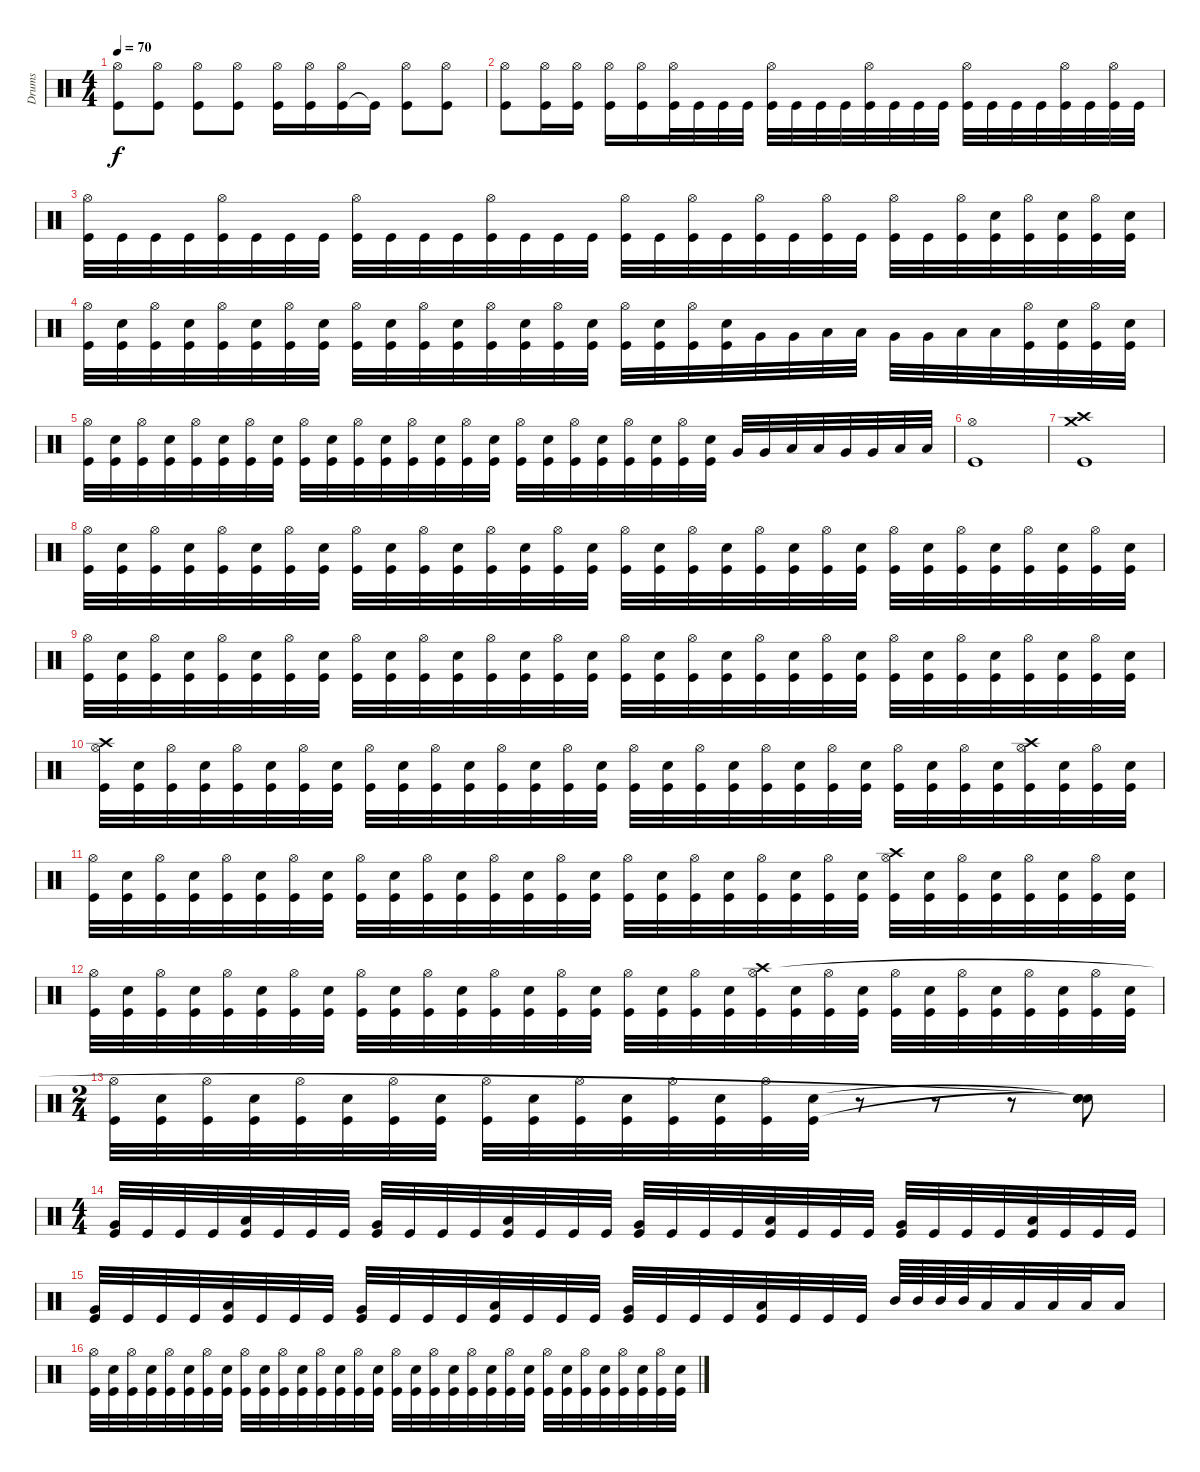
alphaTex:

\track ("Drums" "Drums") {instrument percussion}
\staff {score}
\articulation defaults
\ts (4 4)
\tempo 70
\clef neutral
\ks c
("Kick (hit)" "Hi-Hat (open)").8{dy f} ("Kick (hit)" "Hi-Hat (open)").8 ("Kick (hit)" "Hi-Hat (open)").8 ("Kick (hit)" "Hi-Hat (open)").8 ("Kick (hit)" "Hi-Hat (open)").16 ("Kick (hit)" "Hi-Hat (open)").16 ("Kick (hit)" "Hi-Hat (open)").16 "Kick (hit)"{t}.16 ("Kick (hit)" "Hi-Hat (open)").8 ("Kick (hit)" "Hi-Hat (open)").8 |
("Kick (hit)" "Hi-Hat (open)").8 ("Kick (hit)" "Hi-Hat (open)").16 ("Kick (hit)" "Hi-Hat (open)").16 ("Kick (hit)" "Hi-Hat (open)").16 ("Kick (hit)" "Hi-Hat (open)").16 ("Kick (hit)" "Hi-Hat (open)").32 "Kick (hit)".32 "Kick (hit)".32 "Kick (hit)".32 ("Kick (hit)" "Hi-Hat (open)").32 "Kick (hit)".32 "Kick (hit)".32 "Kick (hit)".32 ("Kick (hit)" "Hi-Hat (open)").32 "Kick (hit)".32 "Kick (hit)".32 "Kick (hit)".32 ("Kick (hit)" "Hi-Hat (open)").32 "Kick (hit)".32 "Kick (hit)".32 "Kick (hit)".32 ("Kick (hit)" "Hi-Hat (open)").32 "Kick (hit)".32 ("Kick (hit)" "Hi-Hat (open)").32 "Kick (hit)".32 |
("Kick (hit)" "Hi-Hat (open)").32 "Kick (hit)".32 "Kick (hit)".32 "Kick (hit)".32 ("Kick (hit)" "Hi-Hat (open)").32 "Kick (hit)".32 "Kick (hit)".32 "Kick (hit)".32 ("Kick (hit)" "Hi-Hat (open)").32 "Kick (hit)".32 "Kick (hit)".32 "Kick (hit)".32 ("Kick (hit)" "Hi-Hat (open)").32 "Kick (hit)".32 "Kick (hit)".32 "Kick (hit)".32 ("Kick (hit)" "Hi-Hat (open)").32 "Kick (hit)".32 ("Kick (hit)" "Hi-Hat (open)").32 "Kick (hit)".32 ("Kick (hit)" "Hi-Hat (open)").32 "Kick (hit)".32 ("Kick (hit)" "Hi-Hat (open)").32 "Kick (hit)".32 ("Kick (hit)" "Hi-Hat (open)").32 "Kick (hit)".32 ("Kick (hit)" "Hi-Hat (open)").32 ("Kick (hit)" "Electric Snare (hit)").32 ("Kick (hit)" "Hi-Hat (open)").32 ("Kick (hit)" "Electric Snare (hit)").32 ("Kick (hit)" "Hi-Hat (open)").32 ("Kick (hit)" "Electric Snare (hit)").32 |
("Kick (hit)" "Hi-Hat (open)").32 ("Kick (hit)" "Electric Snare (hit)").32 ("Kick (hit)" "Hi-Hat (open)").32 ("Kick (hit)" "Electric Snare (hit)").32 ("Kick (hit)" "Hi-Hat (open)").32 ("Kick (hit)" "Electric Snare (hit)").32 ("Kick (hit)" "Hi-Hat (open)").32 ("Kick (hit)" "Electric Snare (hit)").32 ("Kick (hit)" "Hi-Hat (open)").32 ("Kick (hit)" "Electric Snare (hit)").32 ("Kick (hit)" "Hi-Hat (open)").32 ("Kick (hit)" "Electric Snare (hit)").32 ("Kick (hit)" "Hi-Hat (open)").32 ("Kick (hit)" "Electric Snare (hit)").32 ("Kick (hit)" "Hi-Hat (open)").32 ("Kick (hit)" "Electric Snare (hit)").32 ("Kick (hit)" "Hi-Hat (open)").32 ("Kick (hit)" "Electric Snare (hit)").32 ("Kick (hit)" "Hi-Hat (open)").32 ("Kick (hit)" "Electric Snare (hit)").32 "Very Low Tom (hit)".32 "Very Low Tom (hit)".32 "Low Floor Tom (hit)".32 "Low Floor Tom (hit)".32 "Very Low Tom (hit)".32 "Very Low Tom (hit)".32 "Low Floor Tom (hit)".32 "Low Floor Tom (hit)".32 ("Kick (hit)" "Hi-Hat (open)").32 ("Kick (hit)" "Electric Snare (hit)").32 ("Kick (hit)" "Hi-Hat (open)").32 ("Kick (hit)" "Electric Snare (hit)").32 |
("Kick (hit)" "Hi-Hat (open)").32 ("Kick (hit)" "Electric Snare (hit)").32 ("Kick (hit)" "Hi-Hat (open)").32 ("Kick (hit)" "Electric Snare (hit)").32 ("Kick (hit)" "Hi-Hat (open)").32 ("Kick (hit)" "Electric Snare (hit)").32 ("Kick (hit)" "Hi-Hat (open)").32 ("Kick (hit)" "Electric Snare (hit)").32 ("Kick (hit)" "Hi-Hat (open)").32 ("Kick (hit)" "Electric Snare (hit)").32 ("Kick (hit)" "Hi-Hat (open)").32 ("Kick (hit)" "Electric Snare (hit)").32 ("Kick (hit)" "Hi-Hat (open)").32 ("Kick (hit)" "Electric Snare (hit)").32 ("Kick (hit)" "Hi-Hat (open)").32 ("Kick (hit)" "Electric Snare (hit)").32 ("Kick (hit)" "Hi-Hat (open)").32 ("Kick (hit)" "Electric Snare (hit)").32 ("Kick (hit)" "Hi-Hat (open)").32 ("Kick (hit)" "Electric Snare (hit)").32 ("Kick (hit)" "Hi-Hat (open)").32 ("Kick (hit)" "Electric Snare (hit)").32 ("Kick (hit)" "Hi-Hat (open)").32 ("Kick (hit)" "Electric Snare (hit)").32 "Very Low Tom (hit)".32 "Very Low Tom (hit)".32 "Low Floor Tom (hit)".32 "Low Floor Tom (hit)".32 "Very Low Tom (hit)".32 "Very Low Tom (hit)".32 "Low Floor Tom (hit)".32 "Low Floor Tom (hit)".32 |
("Kick (hit)" "Hi-Hat (open)").1 |
("Crash medium (hit)" "Crash high (hit)" "Kick (hit)").1 |
("Kick (hit)" "Hi-Hat (open)").32 ("Kick (hit)" "Electric Snare (hit)").32 ("Kick (hit)" "Hi-Hat (open)").32 ("Kick (hit)" "Electric Snare (hit)").32 ("Kick (hit)" "Hi-Hat (open)").32 ("Kick (hit)" "Electric Snare (hit)").32 ("Kick (hit)" "Hi-Hat (open)").32 ("Kick (hit)" "Electric Snare (hit)").32 ("Kick (hit)" "Hi-Hat (open)").32 ("Kick (hit)" "Electric Snare (hit)").32 ("Kick (hit)" "Hi-Hat (open)").32 ("Kick (hit)" "Electric Snare (hit)").32 ("Kick (hit)" "Hi-Hat (open)").32 ("Kick (hit)" "Electric Snare (hit)").32 ("Kick (hit)" "Hi-Hat (open)").32 ("Kick (hit)" "Electric Snare (hit)").32 ("Kick (hit)" "Hi-Hat (open)").32 ("Kick (hit)" "Electric Snare (hit)").32 ("Kick (hit)" "Hi-Hat (open)").32 ("Kick (hit)" "Electric Snare (hit)").32 ("Kick (hit)" "Hi-Hat (open)").32 ("Kick (hit)" "Electric Snare (hit)").32 ("Kick (hit)" "Hi-Hat (open)").32 ("Kick (hit)" "Electric Snare (hit)").32 ("Kick (hit)" "Hi-Hat (open)").32 ("Kick (hit)" "Electric Snare (hit)").32 ("Kick (hit)" "Hi-Hat (open)").32 ("Kick (hit)" "Electric Snare (hit)").32 ("Kick (hit)" "Hi-Hat (open)").32 ("Kick (hit)" "Electric Snare (hit)").32 ("Kick (hit)" "Hi-Hat (open)").32 ("Kick (hit)" "Electric Snare (hit)").32 |
("Kick (hit)" "Hi-Hat (open)").32 ("Kick (hit)" "Electric Snare (hit)").32 ("Kick (hit)" "Hi-Hat (open)").32 ("Kick (hit)" "Electric Snare (hit)").32 ("Kick (hit)" "Hi-Hat (open)").32 ("Kick (hit)" "Electric Snare (hit)").32 ("Kick (hit)" "Hi-Hat (open)").32 ("Kick (hit)" "Electric Snare (hit)").32 ("Kick (hit)" "Hi-Hat (open)").32 ("Kick (hit)" "Electric Snare (hit)").32 ("Kick (hit)" "Hi-Hat (open)").32 ("Kick (hit)" "Electric Snare (hit)").32 ("Kick (hit)" "Hi-Hat (open)").32 ("Kick (hit)" "Electric Snare (hit)").32 ("Kick (hit)" "Hi-Hat (open)").32 ("Kick (hit)" "Electric Snare (hit)").32 ("Kick (hit)" "Hi-Hat (open)").32 ("Kick (hit)" "Electric Snare (hit)").32 ("Kick (hit)" "Hi-Hat (open)").32 ("Kick (hit)" "Electric Snare (hit)").32 ("Kick (hit)" "Hi-Hat (open)").32 ("Kick (hit)" "Electric Snare (hit)").32 ("Kick (hit)" "Hi-Hat (open)").32 ("Kick (hit)" "Electric Snare (hit)").32 ("Kick (hit)" "Hi-Hat (open)").32 ("Kick (hit)" "Electric Snare (hit)").32 ("Kick (hit)" "Hi-Hat (open)").32 ("Kick (hit)" "Electric Snare (hit)").32 ("Kick (hit)" "Hi-Hat (open)").32 ("Kick (hit)" "Electric Snare (hit)").32 ("Kick (hit)" "Hi-Hat (open)").32 ("Kick (hit)" "Electric Snare (hit)").32 |
("Kick (hit)" "Crash high (hit)" "Hi-Hat (open)").32 ("Kick (hit)" "Electric Snare (hit)").32 ("Kick (hit)" "Hi-Hat (open)").32 ("Kick (hit)" "Electric Snare (hit)").32 ("Kick (hit)" "Hi-Hat (open)").32 ("Kick (hit)" "Electric Snare (hit)").32 ("Kick (hit)" "Hi-Hat (open)").32 ("Kick (hit)" "Electric Snare (hit)").32 ("Kick (hit)" "Hi-Hat (open)").32 ("Kick (hit)" "Electric Snare (hit)").32 ("Kick (hit)" "Hi-Hat (open)").32 ("Kick (hit)" "Electric Snare (hit)").32 ("Kick (hit)" "Hi-Hat (open)").32 ("Kick (hit)" "Electric Snare (hit)").32 ("Kick (hit)" "Hi-Hat (open)").32 ("Kick (hit)" "Electric Snare (hit)").32 ("Kick (hit)" "Hi-Hat (open)").32 ("Kick (hit)" "Electric Snare (hit)").32 ("Kick (hit)" "Hi-Hat (open)").32 ("Kick (hit)" "Electric Snare (hit)").32 ("Kick (hit)" "Hi-Hat (open)").32 ("Kick (hit)" "Electric Snare (hit)").32 ("Kick (hit)" "Hi-Hat (open)").32 ("Kick (hit)" "Electric Snare (hit)").32 ("Kick (hit)" "Hi-Hat (open)").32 ("Kick (hit)" "Electric Snare (hit)").32 ("Kick (hit)" "Hi-Hat (open)").32 ("Kick (hit)" "Electric Snare (hit)").32 ("Kick (hit)" "Crash high (hit)" "Hi-Hat (open)").32 ("Kick (hit)" "Electric Snare (hit)").32 ("Kick (hit)" "Hi-Hat (open)").32 ("Kick (hit)" "Electric Snare (hit)").32 |
("Kick (hit)" "Hi-Hat (open)").32 ("Kick (hit)" "Electric Snare (hit)").32 ("Kick (hit)" "Hi-Hat (open)").32 ("Kick (hit)" "Electric Snare (hit)").32 ("Kick (hit)" "Hi-Hat (open)").32 ("Kick (hit)" "Electric Snare (hit)").32 ("Kick (hit)" "Hi-Hat (open)").32 ("Kick (hit)" "Electric Snare (hit)").32 ("Kick (hit)" "Hi-Hat (open)").32 ("Kick (hit)" "Electric Snare (hit)").32 ("Kick (hit)" "Hi-Hat (open)").32 ("Kick (hit)" "Electric Snare (hit)").32 ("Kick (hit)" "Hi-Hat (open)").32 ("Kick (hit)" "Electric Snare (hit)").32 ("Kick (hit)" "Hi-Hat (open)").32 ("Kick (hit)" "Electric Snare (hit)").32 ("Kick (hit)" "Hi-Hat (open)").32 ("Kick (hit)" "Electric Snare (hit)").32 ("Kick (hit)" "Hi-Hat (open)").32 ("Kick (hit)" "Electric Snare (hit)").32 ("Kick (hit)" "Hi-Hat (open)").32 ("Kick (hit)" "Electric Snare (hit)").32 ("Kick (hit)" "Hi-Hat (open)").32 ("Kick (hit)" "Electric Snare (hit)").32 ("Kick (hit)" "Crash high (hit)" "Hi-Hat (open)").32 ("Kick (hit)" "Electric Snare (hit)").32 ("Kick (hit)" "Hi-Hat (open)").32 ("Kick (hit)" "Electric Snare (hit)").32 ("Kick (hit)" "Hi-Hat (open)").32 ("Kick (hit)" "Electric Snare (hit)").32 ("Kick (hit)" "Hi-Hat (open)").32 ("Kick (hit)" "Electric Snare (hit)").32 |
("Kick (hit)" "Hi-Hat (open)").32 ("Kick (hit)" "Electric Snare (hit)").32 ("Kick (hit)" "Hi-Hat (open)").32 ("Kick (hit)" "Electric Snare (hit)").32 ("Kick (hit)" "Hi-Hat (open)").32 ("Kick (hit)" "Electric Snare (hit)").32 ("Kick (hit)" "Hi-Hat (open)").32 ("Kick (hit)" "Electric Snare (hit)").32 ("Kick (hit)" "Hi-Hat (open)").32 ("Kick (hit)" "Electric Snare (hit)").32 ("Kick (hit)" "Hi-Hat (open)").32 ("Kick (hit)" "Electric Snare (hit)").32 ("Kick (hit)" "Hi-Hat (open)").32 ("Kick (hit)" "Electric Snare (hit)").32 ("Kick (hit)" "Hi-Hat (open)").32 ("Kick (hit)" "Electric Snare (hit)").32 ("Kick (hit)" "Hi-Hat (open)").32 ("Kick (hit)" "Electric Snare (hit)").32 ("Kick (hit)" "Hi-Hat (open)").32 ("Kick (hit)" "Electric Snare (hit)").32 ("Kick (hit)" "Crash high (hit)" "Hi-Hat (open)").32 ("Kick (hit)" "Electric Snare (hit)").32 ("Kick (hit)" "Hi-Hat (open)").32 ("Kick (hit)" "Electric Snare (hit)").32 ("Kick (hit)" "Hi-Hat (open)").32 ("Kick (hit)" "Electric Snare (hit)").32 ("Kick (hit)" "Hi-Hat (open)").32 ("Kick (hit)" "Electric Snare (hit)").32 ("Kick (hit)" "Hi-Hat (open)").32 ("Kick (hit)" "Electric Snare (hit)").32 ("Kick (hit)" "Hi-Hat (open)").32 ("Kick (hit)" "Electric Snare (hit)").32 |
\ts (2 4)
("Kick (hit)" "Hi-Hat (open)").32 ("Kick (hit)" "Electric Snare (hit)").32 ("Kick (hit)" "Hi-Hat (open)").32 ("Kick (hit)" "Electric Snare (hit)").32 ("Kick (hit)" "Hi-Hat (open)").32 ("Kick (hit)" "Electric Snare (hit)").32 ("Kick (hit)" "Hi-Hat (open)").32 ("Kick (hit)" "Electric Snare (hit)").32 ("Kick (hit)" "Hi-Hat (open)").32 ("Kick (hit)" "Electric Snare (hit)").32 ("Kick (hit)" "Hi-Hat (open)").32 ("Kick (hit)" "Electric Snare (hit)").32 ("Kick (hit)" "Hi-Hat (open)").32 ("Kick (hit)" "Electric Snare (hit)").32 ("Kick (hit)" "Hi-Hat (open)").32 ("Kick (hit)" "Electric Snare (hit)").32 r.8 r.8 r.8 ("Snare (hit)"{t} "Snare (hit)"{t} "Snare (hit)"{t}).8 |
\ts (4 4)
("Kick (hit)" "Very Low Tom (hit)").32 "Kick (hit)".32 "Kick (hit)".32 "Kick (hit)".32 ("Kick (hit)" "Low Floor Tom (hit)").32 "Kick (hit)".32 "Kick (hit)".32 "Kick (hit)".32 ("Kick (hit)" "Very Low Tom (hit)").32 "Kick (hit)".32 "Kick (hit)".32 "Kick (hit)".32 ("Kick (hit)" "Low Floor Tom (hit)").32 "Kick (hit)".32 "Kick (hit)".32 "Kick (hit)".32 ("Kick (hit)" "Very Low Tom (hit)").32 "Kick (hit)".32 "Kick (hit)".32 "Kick (hit)".32 ("Kick (hit)" "Low Floor Tom (hit)").32 "Kick (hit)".32 "Kick (hit)".32 "Kick (hit)".32 ("Kick (hit)" "Very Low Tom (hit)").32 "Kick (hit)".32 "Kick (hit)".32 "Kick (hit)".32 ("Kick (hit)" "Low Floor Tom (hit)").32 "Kick (hit)".32 "Kick (hit)".32 "Kick (hit)".32 |
("Kick (hit)" "Very Low Tom (hit)").32 "Kick (hit)".32 "Kick (hit)".32 "Kick (hit)".32 ("Kick (hit)" "Low Floor Tom (hit)").32 "Kick (hit)".32 "Kick (hit)".32 "Kick (hit)".32 ("Kick (hit)" "Very Low Tom (hit)").32 "Kick (hit)".32 "Kick (hit)".32 "Kick (hit)".32 ("Kick (hit)" "Low Floor Tom (hit)").32 "Kick (hit)".32 "Kick (hit)".32 "Kick (hit)".32 ("Kick (hit)" "Very Low Tom (hit)").32 "Kick (hit)".32 "Kick (hit)".32 "Kick (hit)".32 ("Kick (hit)" "Low Floor Tom (hit)").32 "Kick (hit)".32 "Kick (hit)".32 "Kick (hit)".32 "Mid Tom (hit)".64 "Mid Tom (hit)".64 "Mid Tom (hit)".64 "Mid Tom (hit)".64 "Low Tom (hit)".32 "Low Tom (hit)".32 "Low Tom (hit)".32 "Low Tom (hit)".32 "Low Floor Tom (hit)".16 |
("Kick (hit)" "Hi-Hat (open)").32 ("Kick (hit)" "Electric Snare (hit)").32 ("Kick (hit)" "Hi-Hat (open)").32 ("Kick (hit)" "Electric Snare (hit)").32 ("Kick (hit)" "Hi-Hat (open)").32 ("Kick (hit)" "Electric Snare (hit)").32 ("Kick (hit)" "Hi-Hat (open)").32 ("Kick (hit)" "Electric Snare (hit)").32 ("Kick (hit)" "Hi-Hat (open)").32 ("Kick (hit)" "Electric Snare (hit)").32 ("Kick (hit)" "Hi-Hat (open)").32 ("Kick (hit)" "Electric Snare (hit)").32 ("Kick (hit)" "Hi-Hat (open)").32 ("Kick (hit)" "Electric Snare (hit)").32 ("Kick (hit)" "Hi-Hat (open)").32 ("Kick (hit)" "Electric Snare (hit)").32 ("Kick (hit)" "Hi-Hat (open)").32 ("Kick (hit)" "Electric Snare (hit)").32 ("Kick (hit)" "Hi-Hat (open)").32 ("Kick (hit)" "Electric Snare (hit)").32 ("Kick (hit)" "Hi-Hat (open)").32 ("Kick (hit)" "Electric Snare (hit)").32 ("Kick (hit)" "Hi-Hat (open)").32 ("Kick (hit)" "Electric Snare (hit)").32 ("Kick (hit)" "Hi-Hat (open)").32 ("Kick (hit)" "Electric Snare (hit)").32 ("Kick (hit)" "Hi-Hat (open)").32 ("Kick (hit)" "Electric Snare (hit)").32 ("Kick (hit)" "Hi-Hat (open)").32 ("Kick (hit)" "Electric Snare (hit)").32 ("Kick (hit)" "Hi-Hat (open)").32 ("Kick (hit)" "Electric Snare (hit)").32
